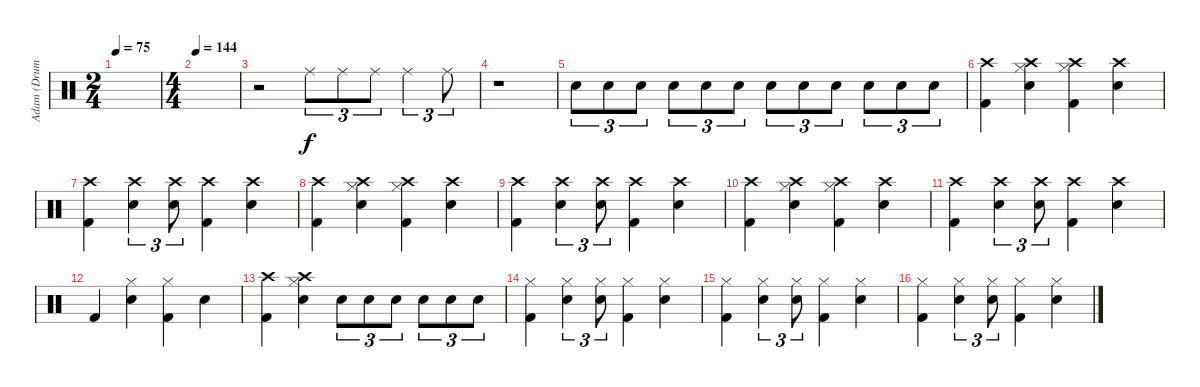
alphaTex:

\track ("Adam (Drums)" "Adam (Drum") {instrument percussion}
\staff {score}
\articulation defaults
\ts (2 4)
\tempo 75
\clef neutral
\ks c
|
\ts (4 4)
\tempo 144
|
r.2 "Ride (middle)".8{tu (3 2) dy f} "Ride (middle)".8{tu (3 2)} "Ride (middle)".8{tu (3 2)} "Ride (middle)".4{tu (3 2)} "Ride (middle)".8{tu (3 2)} |
r.1 |
"Electric Snare (hit)".8{tu (3 2)} "Electric Snare (hit)".8{tu (3 2)} "Electric Snare (hit)".8{tu (3 2)} "Electric Snare (hit)".8{tu (3 2)} "Electric Snare (hit)".8{tu (3 2)} "Electric Snare (hit)".8{tu (3 2)} "Electric Snare (hit)".8{tu (3 2)} "Electric Snare (hit)".8{tu (3 2)} "Electric Snare (hit)".8{tu (3 2)} "Electric Snare (hit)".8{tu (3 2)} "Electric Snare (hit)".8{tu (3 2)} "Electric Snare (hit)".8{tu (3 2)} |
("Crash high (hit)" "Kick (hit) 2").4 ("Hi-Hat (closed)" "Crash high (hit)" "Electric Snare (hit)").4 ("Hi-Hat (closed)" "Crash high (hit)" "Kick (hit) 2").4 ("Crash high (hit)" "Electric Snare (hit)").4 |
("Kick (hit) 2" "Crash high (hit)").4 ("Electric Snare (hit)" "Crash high (hit)").4{tu (3 2)} ("Electric Snare (hit)" "Crash high (hit)").8{tu (3 2)} ("Kick (hit) 2" "Crash high (hit)").4 ("Electric Snare (hit)" "Crash high (hit)").4 |
("Crash high (hit)" "Kick (hit) 2").4 ("Hi-Hat (closed)" "Crash high (hit)" "Electric Snare (hit)").4 ("Hi-Hat (closed)" "Crash high (hit)" "Kick (hit) 2").4 ("Crash high (hit)" "Electric Snare (hit)").4 |
("Kick (hit) 2" "Crash high (hit)").4 ("Electric Snare (hit)" "Crash high (hit)").4{tu (3 2)} ("Electric Snare (hit)" "Crash high (hit)").8{tu (3 2)} ("Kick (hit) 2" "Crash high (hit)").4 ("Electric Snare (hit)" "Crash high (hit)").4 |
("Crash high (hit)" "Kick (hit) 2").4 ("Hi-Hat (closed)" "Crash high (hit)" "Electric Snare (hit)").4 ("Hi-Hat (closed)" "Crash high (hit)" "Kick (hit) 2").4 ("Crash high (hit)" "Electric Snare (hit)").4 |
("Kick (hit) 2" "Crash high (hit)").4 ("Electric Snare (hit)" "Crash high (hit)").4{tu (3 2)} ("Electric Snare (hit)" "Crash high (hit)").8{tu (3 2)} ("Kick (hit) 2" "Crash high (hit)").4 ("Electric Snare (hit)" "Crash high (hit)").4 |
"Kick (hit) 2".4 ("Hi-Hat (closed)" "Electric Snare (hit)").4 ("Hi-Hat (closed)" "Kick (hit) 2").4 "Electric Snare (hit)".4 |
("Crash high (hit)" "Kick (hit) 2").4 ("Hi-Hat (closed)" "Crash high (hit)" "Electric Snare (hit)").4 "Electric Snare (hit)".8{tu (3 2)} "Electric Snare (hit)".8{tu (3 2)} "Electric Snare (hit)".8{tu (3 2)} "Electric Snare (hit)".8{tu (3 2)} "Electric Snare (hit)".8{tu (3 2)} "Electric Snare (hit)".8{tu (3 2)} |
("Kick (hit) 2" "Hi-Hat (closed)").4 ("Electric Snare (hit)" "Hi-Hat (closed)").4{tu (3 2)} ("Electric Snare (hit)" "Hi-Hat (closed)").8{tu (3 2)} ("Kick (hit) 2" "Hi-Hat (closed)").4 ("Electric Snare (hit)" "Hi-Hat (closed)").4 |
("Kick (hit) 2" "Hi-Hat (closed)").4 ("Electric Snare (hit)" "Hi-Hat (closed)").4{tu (3 2)} ("Electric Snare (hit)" "Hi-Hat (closed)").8{tu (3 2)} ("Kick (hit) 2" "Hi-Hat (closed)").4 ("Electric Snare (hit)" "Hi-Hat (closed)").4 |
("Kick (hit) 2" "Hi-Hat (closed)").4 ("Electric Snare (hit)" "Hi-Hat (closed)").4{tu (3 2)} ("Electric Snare (hit)" "Hi-Hat (closed)").8{tu (3 2)} ("Kick (hit) 2" "Hi-Hat (closed)").4 ("Electric Snare (hit)" "Hi-Hat (closed)").4
